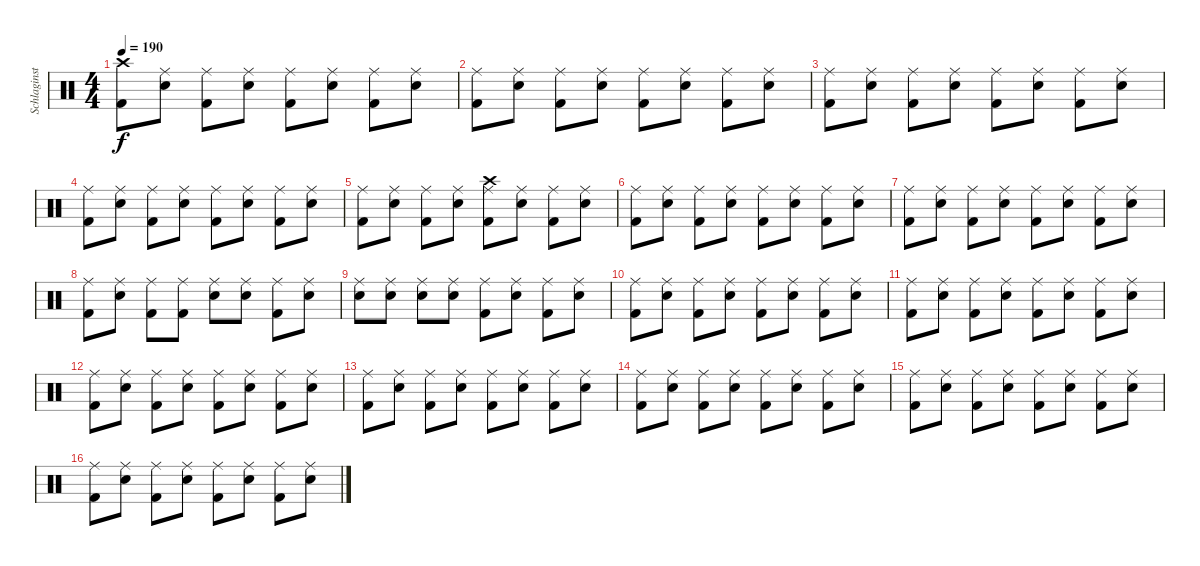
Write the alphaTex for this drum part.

\track ("Schlaginstrumente - Auswahl" "Schlaginst") {instrument percussion}
\staff {score}
\articulation defaults
\ts (4 4)
\tempo 190
\clef neutral
\ks c
("Crash high (hit)" "Kick (hit) 2").8{dy f} ("Ride (middle)" "Electric Snare (hit)").8 ("Ride (middle)" "Kick (hit) 2").8 ("Ride (middle)" "Electric Snare (hit)").8 ("Ride (middle)" "Kick (hit) 2").8 ("Ride (middle)" "Electric Snare (hit)").8 ("Ride (middle)" "Kick (hit) 2").8 ("Ride (middle)" "Electric Snare (hit)").8 |
("Ride (middle)" "Kick (hit) 2").8 ("Ride (middle)" "Electric Snare (hit)").8 ("Ride (middle)" "Kick (hit) 2").8 ("Ride (middle)" "Electric Snare (hit)").8 ("Ride (middle)" "Kick (hit) 2").8 ("Ride (middle)" "Electric Snare (hit)").8 ("Ride (middle)" "Kick (hit) 2").8 ("Ride (middle)" "Electric Snare (hit)").8 |
("Ride (middle)" "Kick (hit) 2").8 ("Ride (middle)" "Electric Snare (hit)").8 ("Ride (middle)" "Kick (hit) 2").8 ("Ride (middle)" "Electric Snare (hit)").8 ("Ride (middle)" "Kick (hit) 2").8 ("Ride (middle)" "Electric Snare (hit)").8 ("Ride (middle)" "Kick (hit) 2").8 ("Ride (middle)" "Electric Snare (hit)").8 |
("Ride (middle)" "Kick (hit) 2").8 ("Ride (middle)" "Electric Snare (hit)").8 ("Ride (middle)" "Kick (hit) 2").8 ("Ride (middle)" "Electric Snare (hit)").8 ("Ride (middle)" "Kick (hit) 2").8 ("Ride (middle)" "Electric Snare (hit)").8 ("Ride (middle)" "Kick (hit) 2").8 ("Ride (middle)" "Electric Snare (hit)").8 |
("Ride (middle)" "Kick (hit) 2").8 ("Ride (middle)" "Electric Snare (hit)").8 ("Ride (middle)" "Kick (hit) 2").8 ("Ride (middle)" "Electric Snare (hit)").8 ("Crash high (hit)" "Ride (middle)" "Kick (hit) 2").8 ("Ride (middle)" "Electric Snare (hit)").8 ("Ride (middle)" "Kick (hit) 2").8 ("Ride (middle)" "Electric Snare (hit)").8 |
("Ride (middle)" "Kick (hit) 2").8 ("Ride (middle)" "Electric Snare (hit)").8 ("Ride (middle)" "Kick (hit) 2").8 ("Ride (middle)" "Electric Snare (hit)").8 ("Ride (middle)" "Kick (hit) 2").8 ("Ride (middle)" "Electric Snare (hit)").8 ("Ride (middle)" "Kick (hit) 2").8 ("Ride (middle)" "Electric Snare (hit)").8 |
("Ride (middle)" "Kick (hit) 2").8 ("Ride (middle)" "Electric Snare (hit)").8 ("Ride (middle)" "Kick (hit) 2").8 ("Ride (middle)" "Electric Snare (hit)").8 ("Ride (middle)" "Kick (hit) 2").8 ("Ride (middle)" "Electric Snare (hit)").8 ("Ride (middle)" "Kick (hit) 2").8 ("Ride (middle)" "Electric Snare (hit)").8 |
("Ride (middle)" "Kick (hit) 2").8 ("Ride (middle)" "Electric Snare (hit)").8 ("Ride (middle)" "Kick (hit) 2").8 ("Ride (middle)" "Kick (hit) 2").8 ("Ride (middle)" "Electric Snare (hit)").8 ("Ride (middle)" "Electric Snare (hit)").8 ("Ride (middle)" "Kick (hit) 2").8 ("Ride (middle)" "Electric Snare (hit)").8 |
("Ride (middle)" "Electric Snare (hit)").8 ("Ride (middle)" "Electric Snare (hit)").8 ("Ride (middle)" "Electric Snare (hit)").8 ("Ride (middle)" "Electric Snare (hit)").8 ("Ride (middle)" "Kick (hit) 2").8 ("Ride (middle)" "Electric Snare (hit)").8 ("Ride (middle)" "Kick (hit) 2").8 ("Ride (middle)" "Electric Snare (hit)").8 |
("Ride (middle)" "Kick (hit) 2").8 ("Ride (middle)" "Electric Snare (hit)").8 ("Ride (middle)" "Kick (hit) 2").8 ("Ride (middle)" "Electric Snare (hit)").8 ("Ride (middle)" "Kick (hit) 2").8 ("Ride (middle)" "Electric Snare (hit)").8 ("Ride (middle)" "Kick (hit) 2").8 ("Ride (middle)" "Electric Snare (hit)").8 |
("Ride (middle)" "Kick (hit) 2").8 ("Ride (middle)" "Electric Snare (hit)").8 ("Ride (middle)" "Kick (hit) 2").8 ("Ride (middle)" "Electric Snare (hit)").8 ("Ride (middle)" "Kick (hit) 2").8 ("Ride (middle)" "Electric Snare (hit)").8 ("Ride (middle)" "Kick (hit) 2").8 ("Ride (middle)" "Electric Snare (hit)").8 |
("Ride (middle)" "Kick (hit) 2").8 ("Ride (middle)" "Electric Snare (hit)").8 ("Ride (middle)" "Kick (hit) 2").8 ("Ride (middle)" "Electric Snare (hit)").8 ("Ride (middle)" "Kick (hit) 2").8 ("Ride (middle)" "Electric Snare (hit)").8 ("Ride (middle)" "Kick (hit) 2").8 ("Ride (middle)" "Electric Snare (hit)").8 |
("Ride (middle)" "Kick (hit) 2").8 ("Ride (middle)" "Electric Snare (hit)").8 ("Ride (middle)" "Kick (hit) 2").8 ("Ride (middle)" "Electric Snare (hit)").8 ("Ride (middle)" "Kick (hit) 2").8 ("Ride (middle)" "Electric Snare (hit)").8 ("Ride (middle)" "Kick (hit) 2").8 ("Ride (middle)" "Electric Snare (hit)").8 |
("Ride (middle)" "Kick (hit) 2").8 ("Ride (middle)" "Electric Snare (hit)").8 ("Ride (middle)" "Kick (hit) 2").8 ("Ride (middle)" "Electric Snare (hit)").8 ("Ride (middle)" "Kick (hit) 2").8 ("Ride (middle)" "Electric Snare (hit)").8 ("Ride (middle)" "Kick (hit) 2").8 ("Ride (middle)" "Electric Snare (hit)").8 |
("Ride (middle)" "Kick (hit) 2").8 ("Ride (middle)" "Electric Snare (hit)").8 ("Ride (middle)" "Kick (hit) 2").8 ("Ride (middle)" "Electric Snare (hit)").8 ("Ride (middle)" "Kick (hit) 2").8 ("Ride (middle)" "Electric Snare (hit)").8 ("Ride (middle)" "Kick (hit) 2").8 ("Ride (middle)" "Electric Snare (hit)").8 |
("Ride (middle)" "Kick (hit) 2").8 ("Ride (middle)" "Electric Snare (hit)").8 ("Ride (middle)" "Kick (hit) 2").8 ("Ride (middle)" "Electric Snare (hit)").8 ("Ride (middle)" "Kick (hit) 2").8 ("Ride (middle)" "Electric Snare (hit)").8 ("Ride (middle)" "Kick (hit) 2").8 ("Ride (middle)" "Electric Snare (hit)").8
